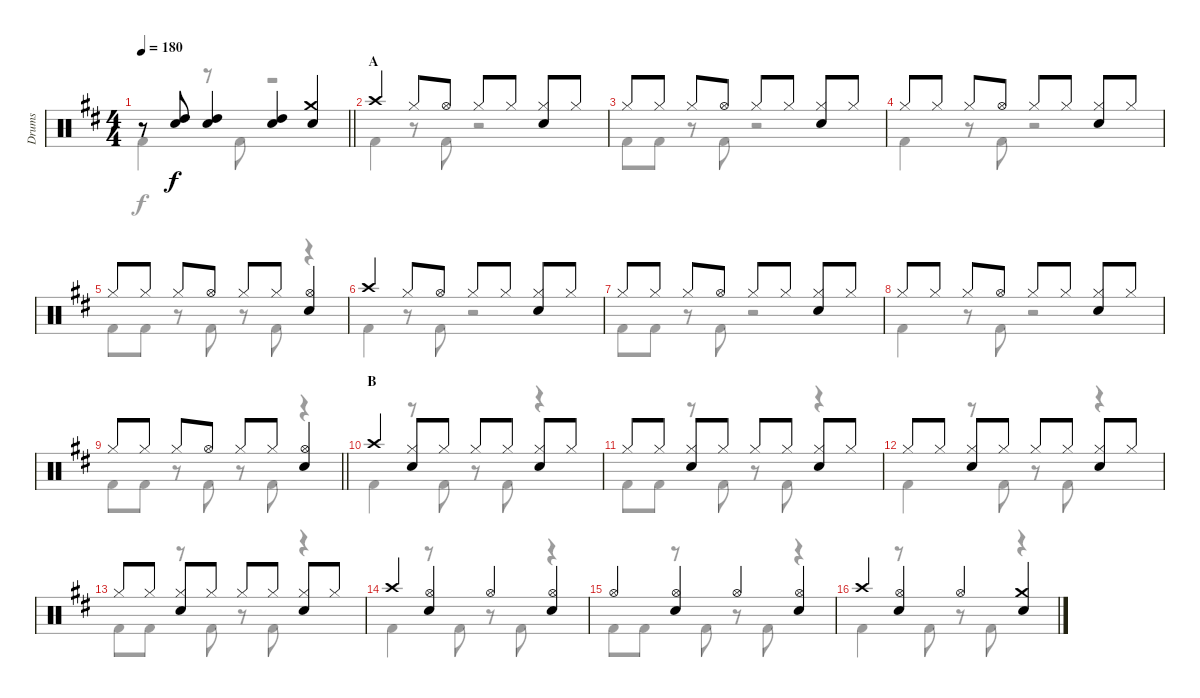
\track ("Drums" "Drums") {instrument percussion}
\staff {score}
\articulation defaults
\voice
\ts (4 4)
\tempo 180
\clef neutral
\barLineRight lightlight
\ks d
r.8{dy f} ("High Tom (hit)" "Snare (hit) 2").8 ("High Tom (hit)" "Snare (hit) 2").4 ("High Tom (hit)" "Snare (hit) 2").4 ("Crash medium (hit)" "Snare (hit) 2").4 |
\section ("" "A")
"Crash high (hit)".4 "Hi-Hat (closed)".8 "Hi-Hat (open)".8 "Hi-Hat (closed)".8 "Hi-Hat (closed)".8 ("Hi-Hat (closed)" "Snare (hit) 2").8 "Hi-Hat (closed)".8 |
"Hi-Hat (closed)".8 "Hi-Hat (closed)".8 "Hi-Hat (closed)".8 "Hi-Hat (open)".8 "Hi-Hat (closed)".8 "Hi-Hat (closed)".8 ("Hi-Hat (closed)" "Snare (hit) 2").8 "Hi-Hat (closed)".8 |
"Hi-Hat (closed)".8 "Hi-Hat (closed)".8 "Hi-Hat (closed)".8 "Hi-Hat (open)".8 "Hi-Hat (closed)".8 "Hi-Hat (closed)".8 ("Hi-Hat (closed)" "Snare (hit) 2").8 "Hi-Hat (closed)".8 |
"Hi-Hat (closed)".8 "Hi-Hat (closed)".8 "Hi-Hat (closed)".8 "Hi-Hat (open)".8 "Hi-Hat (closed)".8 "Hi-Hat (closed)".8 ("Hi-Hat (open)" "Snare (hit) 2").4 |
"Crash high (hit)".4 "Hi-Hat (closed)".8 "Hi-Hat (open)".8 "Hi-Hat (closed)".8 "Hi-Hat (closed)".8 ("Hi-Hat (closed)" "Snare (hit) 2").8 "Hi-Hat (closed)".8 |
"Hi-Hat (closed)".8 "Hi-Hat (closed)".8 "Hi-Hat (closed)".8 "Hi-Hat (open)".8 "Hi-Hat (closed)".8 "Hi-Hat (closed)".8 ("Hi-Hat (closed)" "Snare (hit) 2").8 "Hi-Hat (closed)".8 |
"Hi-Hat (closed)".8 "Hi-Hat (closed)".8 "Hi-Hat (closed)".8 "Hi-Hat (open)".8 "Hi-Hat (closed)".8 "Hi-Hat (closed)".8 ("Hi-Hat (closed)" "Snare (hit) 2").8 "Hi-Hat (closed)".8 |
\barLineRight lightlight "Hi-Hat (closed)".8 "Hi-Hat (closed)".8 "Hi-Hat (closed)".8 "Hi-Hat (open)".8 "Hi-Hat (closed)".8 "Hi-Hat (closed)".8
("Hi-Hat (open)" "Snare (hit) 2").4 |
\section ("" "B")
"Crash high (hit)".4 ("Hi-Hat (closed)" "Snare (hit) 2").8 "Hi-Hat (closed)".8 "Hi-Hat (closed)".8 "Hi-Hat (closed)".8 ("Hi-Hat (closed)" "Snare (hit) 2").8 "Hi-Hat (closed)".8 |
"Hi-Hat (closed)".8 "Hi-Hat (closed)".8 ("Hi-Hat (closed)" "Snare (hit) 2").8 "Hi-Hat (closed)".8 "Hi-Hat (closed)".8 "Hi-Hat (closed)".8 ("Hi-Hat (closed)" "Snare (hit) 2").8 "Hi-Hat (closed)".8 |
"Hi-Hat (closed)".8 "Hi-Hat (closed)".8 ("Hi-Hat (closed)" "Snare (hit) 2").8 "Hi-Hat (closed)".8 "Hi-Hat (closed)".8 "Hi-Hat (closed)".8 ("Hi-Hat (closed)" "Snare (hit) 2").8 "Hi-Hat (closed)".8 |
"Hi-Hat (closed)".8 "Hi-Hat (closed)".8 ("Hi-Hat (closed)" "Snare (hit) 2").8 "Hi-Hat (closed)".8 "Hi-Hat (closed)".8 "Hi-Hat (closed)".8 ("Hi-Hat (closed)" "Snare (hit) 2").8 "Hi-Hat (closed)".8 |
"Crash high (hit)".4 ("Hi-Hat (open)" "Snare (hit) 2").4 "Hi-Hat (open)".4 ("Hi-Hat (open)" "Snare (hit) 2").4 |
"Hi-Hat (open)".4 ("Hi-Hat (open)" "Snare (hit) 2").4 "Hi-Hat (open)".4 ("Hi-Hat (open)" "Snare (hit) 2").4 |
"Crash high (hit)".4 ("Hi-Hat (open)" "Snare (hit) 2").4 "Hi-Hat (open)".4 ("Crash medium (hit)" "Snare (hit) 2").4
\voice
\clef neutral
\ottava regular
\simile none
\barLineRight lightlight
\ks d "Kick (hit) 2".4{dy f}
r.8 "Kick (hit) 2".8 r.2 |
"Kick (hit) 2".4 r.8 "Kick (hit) 2".8 r.2 |
"Kick (hit) 2".8 "Kick (hit) 2".8 r.8 "Kick (hit) 2".8 r.2 |
"Kick (hit) 2".4 r.8 "Kick (hit) 2".8 r.2 |
"Kick (hit) 2".8 "Kick (hit) 2".8 r.8 "Kick (hit) 2".8 r.8 "Kick (hit) 2".8 r.4 |
"Kick (hit) 2".4 r.8 "Kick (hit) 2".8 r.2 |
"Kick (hit) 2".8 "Kick (hit) 2".8 r.8 "Kick (hit) 2".8 r.2 |
"Kick (hit) 2".4 r.8 "Kick (hit) 2".8 r.2 |
\barLineRight lightlight "Kick (hit) 2".8 "Kick (hit) 2".8
r.8 "Kick (hit) 2".8 r.8 "Kick (hit) 2".8 r.4 |
"Kick (hit) 2".4 r.8 "Kick (hit) 2".8 r.8 "Kick (hit) 2".8 r.4 |
"Kick (hit) 2".8 "Kick (hit) 2".8 r.8 "Kick (hit) 2".8 r.8 "Kick (hit) 2".8 r.4 |
"Kick (hit) 2".4 r.8 "Kick (hit) 2".8 r.8 "Kick (hit) 2".8 r.4 |
"Kick (hit) 2".8 "Kick (hit) 2".8 r.8 "Kick (hit) 2".8 r.8 "Kick (hit) 2".8 r.4 |
"Kick (hit) 2".4 r.8 "Kick (hit) 2".8 r.8 "Kick (hit) 2".8 r.4 |
"Kick (hit) 2".8 "Kick (hit) 2".8 r.8 "Kick (hit) 2".8 r.8 "Kick (hit) 2".8 r.4 |
"Kick (hit) 2".4 r.8 "Kick (hit) 2".8 r.8 "Kick (hit) 2".8 r.4
